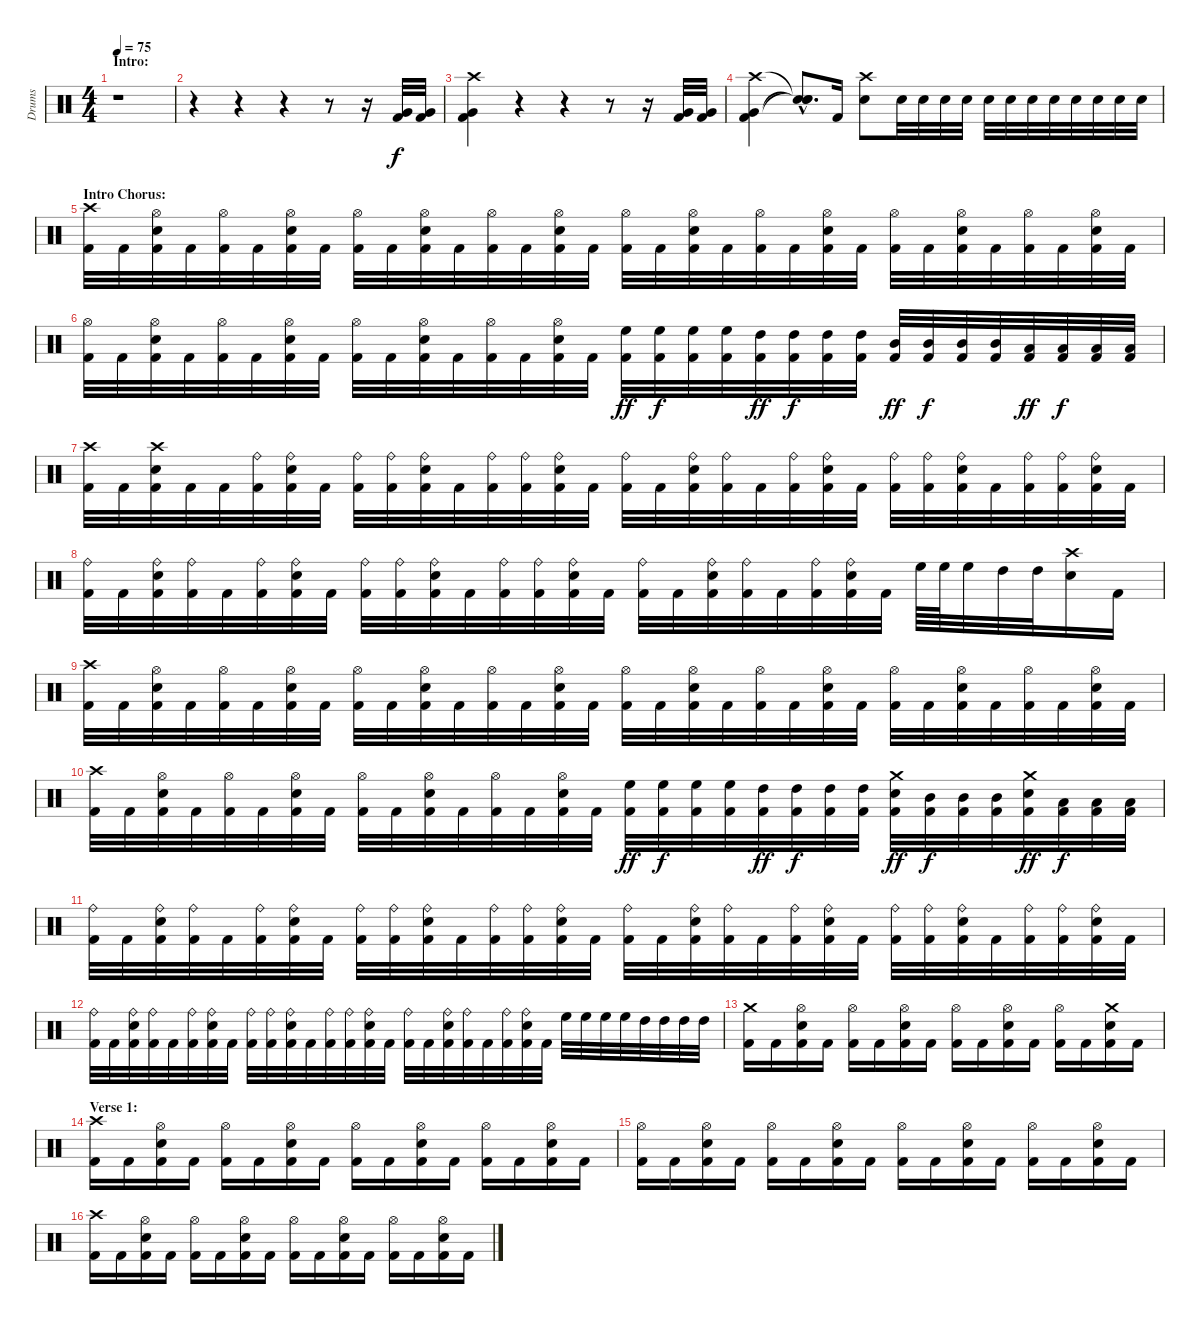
\track ("Drums" "Drums") {instrument percussion}
\staff {score}
\articulation defaults
\ts (4 4)
\section ("" "Intro:")
\tempo 75
\clef neutral
\ks c
r.1{dy f} |
r.4 r.4 r.4 r.8 r.16 ("Very Low Tom (hit)" "Kick (hit) 2").32 ("Very Low Tom (hit)" "Kick (hit) 2").32 |
("Crash high (hit)" "Very Low Tom (hit)" "Kick (hit) 2").4 r.4 r.4 r.8 r.16 ("Very Low Tom (hit)" "Kick (hit) 2").32 ("Very Low Tom (hit)" "Kick (hit) 2").32 |
("Crash high (hit)" "Very Low Tom (hit)" "Kick (hit) 2").4 ("Snare (hit)"{hac t} "Snare (hit)"{hac t} "Snare (hit)"{hac t}).8{d} "Kick (hit) 2".16 ("Crash high (hit)" "Snare (hit) 2").8 "Snare (hit) 2".32 "Snare (hit) 2".32 "Snare (hit) 2".32 "Snare (hit) 2".32 "Snare (hit) 2".32 "Snare (hit) 2".32 "Snare (hit) 2".32 "Snare (hit) 2".32 "Snare (hit) 2".32 "Snare (hit) 2".32 "Snare (hit) 2".32 "Snare (hit) 2".32 |
\section ("" "Intro Chorus:")
("Crash high (hit)" "Kick (hit) 2").32 "Kick (hit) 2".32 ("Hi-Hat (open)" "Snare (hit) 2" "Kick (hit) 2").32 "Kick (hit) 2".32 ("Hi-Hat (open)" "Kick (hit) 2").32 "Kick (hit) 2".32 ("Hi-Hat (open)" "Snare (hit) 2" "Kick (hit) 2").32 "Kick (hit) 2".32 ("Hi-Hat (open)" "Kick (hit) 2").32 "Kick (hit) 2".32 ("Hi-Hat (open)" "Snare (hit) 2" "Kick (hit) 2").32 "Kick (hit) 2".32 ("Hi-Hat (open)" "Kick (hit) 2").32 "Kick (hit) 2".32 ("Hi-Hat (open)" "Snare (hit) 2" "Kick (hit) 2").32 "Kick (hit) 2".32 ("Hi-Hat (open)" "Kick (hit) 2").32 "Kick (hit) 2".32 ("Hi-Hat (open)" "Snare (hit) 2" "Kick (hit) 2").32 "Kick (hit) 2".32 ("Hi-Hat (open)" "Kick (hit) 2").32 "Kick (hit) 2".32 ("Hi-Hat (open)" "Snare (hit) 2" "Kick (hit) 2").32 "Kick (hit) 2".32 ("Hi-Hat (open)" "Kick (hit) 2").32 "Kick (hit) 2".32 ("Hi-Hat (open)" "Snare (hit) 2" "Kick (hit) 2").32 "Kick (hit) 2".32 ("Hi-Hat (open)" "Kick (hit) 2").32 "Kick (hit) 2".32 ("Hi-Hat (open)" "Snare (hit) 2" "Kick (hit) 2").32 "Kick (hit) 2".32 |
("Hi-Hat (open)" "Kick (hit) 2").32 "Kick (hit) 2".32 ("Hi-Hat (open)" "Snare (hit) 2" "Kick (hit) 2").32 "Kick (hit) 2".32 ("Hi-Hat (open)" "Kick (hit) 2").32 "Kick (hit) 2".32 ("Hi-Hat (open)" "Snare (hit) 2" "Kick (hit) 2").32 "Kick (hit) 2".32 ("Hi-Hat (open)" "Kick (hit) 2").32 "Kick (hit) 2".32 ("Hi-Hat (open)" "Snare (hit) 2" "Kick (hit) 2").32 "Kick (hit) 2".32 ("Hi-Hat (open)" "Kick (hit) 2").32 "Kick (hit) 2".32 ("Hi-Hat (open)" "Snare (hit) 2" "Kick (hit) 2").32 "Kick (hit) 2".32 ("High Floor Tom (hit)" "Kick (hit) 2").32{dy ff} ("High Floor Tom (hit)" "Kick (hit) 2").32{dy f} ("High Floor Tom (hit)" "Kick (hit) 2").32 ("High Floor Tom (hit)" "Kick (hit) 2").32 ("High Tom (hit)" "Kick (hit) 2").32{dy ff} ("High Tom (hit)" "Kick (hit) 2").32{dy f} ("High Tom (hit)" "Kick (hit) 2").32 ("High Tom (hit)" "Kick (hit) 2").32 ("Mid Tom (hit)" "Kick (hit) 2").32{dy ff} ("Mid Tom (hit)" "Kick (hit) 2").32{dy f} ("Mid Tom (hit)" "Kick (hit) 2").32 ("Mid Tom (hit)" "Kick (hit) 2").32 ("Low Tom (hit)" "Kick (hit) 2").32{dy ff} ("Low Tom (hit)" "Kick (hit) 2").32{dy f} ("Low Tom (hit)" "Kick (hit) 2").32 ("Low Tom (hit)" "Kick (hit) 2").32 |
("Crash high (hit)" "Kick (hit) 2").32 "Kick (hit) 2".32 ("Crash high (hit)" "Snare (hit) 2" "Kick (hit) 2").32 "Kick (hit) 2".32 "Kick (hit) 2".32 ("Ride (bell)" "Kick (hit) 2").32 ("Ride (bell)" "Snare (hit) 2" "Kick (hit) 2").32 "Kick (hit) 2".32 ("Ride (bell)" "Kick (hit) 2").32 ("Ride (bell)" "Kick (hit) 2").32 ("Ride (bell)" "Snare (hit) 2" "Kick (hit) 2").32 "Kick (hit) 2".32 ("Ride (bell)" "Kick (hit) 2").32 ("Ride (bell)" "Kick (hit) 2").32 ("Ride (bell)" "Snare (hit) 2" "Kick (hit) 2").32 "Kick (hit) 2".32 ("Ride (bell)" "Kick (hit) 2").32 "Kick (hit) 2".32 ("Ride (bell)" "Snare (hit) 2" "Kick (hit) 2").32 ("Ride (bell)" "Kick (hit) 2").32 "Kick (hit) 2".32 ("Ride (bell)" "Kick (hit) 2").32 ("Ride (bell)" "Snare (hit) 2" "Kick (hit) 2").32 "Kick (hit) 2".32 ("Ride (bell)" "Kick (hit) 2").32 ("Ride (bell)" "Kick (hit) 2").32 ("Ride (bell)" "Snare (hit) 2" "Kick (hit) 2").32 "Kick (hit) 2".32 ("Ride (bell)" "Kick (hit) 2").32 ("Ride (bell)" "Kick (hit) 2").32 ("Ride (bell)" "Snare (hit) 2" "Kick (hit) 2").32 "Kick (hit) 2".32 |
("Ride (bell)" "Kick (hit) 2").32 "Kick (hit) 2".32 ("Ride (bell)" "Snare (hit) 2" "Kick (hit) 2").32 ("Ride (bell)" "Kick (hit) 2").32 "Kick (hit) 2".32 ("Ride (bell)" "Kick (hit) 2").32 ("Ride (bell)" "Snare (hit) 2" "Kick (hit) 2").32 "Kick (hit) 2".32 ("Ride (bell)" "Kick (hit) 2").32 ("Ride (bell)" "Kick (hit) 2").32 ("Ride (bell)" "Snare (hit) 2" "Kick (hit) 2").32 "Kick (hit) 2".32 ("Ride (bell)" "Kick (hit) 2").32 ("Ride (bell)" "Kick (hit) 2").32 ("Ride (bell)" "Snare (hit) 2" "Kick (hit) 2").32 "Kick (hit) 2".32 ("Ride (bell)" "Kick (hit) 2").32 "Kick (hit) 2".32 ("Ride (bell)" "Snare (hit) 2" "Kick (hit) 2").32 ("Ride (bell)" "Kick (hit) 2").32 "Kick (hit) 2".32 ("Ride (bell)" "Kick (hit) 2").32 ("Ride (bell)" "Snare (hit) 2" "Kick (hit) 2").32 "Kick (hit) 2".32 "High Floor Tom (hit)".64 "High Floor Tom (hit)".64 "High Floor Tom (hit)".32 "High Tom (hit)".32 "High Tom (hit)".32 ("Crash high (hit)" "Snare (hit) 2").16 "Kick (hit) 2".16 |
("Crash high (hit)" "Kick (hit) 2").32 "Kick (hit) 2".32 ("Hi-Hat (open)" "Snare (hit) 2" "Kick (hit) 2").32 "Kick (hit) 2".32 ("Hi-Hat (open)" "Kick (hit) 2").32 "Kick (hit) 2".32 ("Hi-Hat (open)" "Snare (hit) 2" "Kick (hit) 2").32 "Kick (hit) 2".32 ("Hi-Hat (open)" "Kick (hit) 2").32 "Kick (hit) 2".32 ("Hi-Hat (open)" "Snare (hit) 2" "Kick (hit) 2").32 "Kick (hit) 2".32 ("Hi-Hat (open)" "Kick (hit) 2").32 "Kick (hit) 2".32 ("Hi-Hat (open)" "Snare (hit) 2" "Kick (hit) 2").32 "Kick (hit) 2".32 ("Hi-Hat (open)" "Kick (hit) 2").32 "Kick (hit) 2".32 ("Hi-Hat (open)" "Snare (hit) 2" "Kick (hit) 2").32 "Kick (hit) 2".32 ("Hi-Hat (open)" "Kick (hit) 2").32 "Kick (hit) 2".32 ("Hi-Hat (open)" "Snare (hit) 2" "Kick (hit) 2").32 "Kick (hit) 2".32 ("Hi-Hat (open)" "Kick (hit) 2").32 "Kick (hit) 2".32 ("Hi-Hat (open)" "Snare (hit) 2" "Kick (hit) 2").32 "Kick (hit) 2".32 ("Hi-Hat (open)" "Kick (hit) 2").32 "Kick (hit) 2".32 ("Hi-Hat (open)" "Snare (hit) 2" "Kick (hit) 2").32 "Kick (hit) 2".32 |
("Crash high (hit)" "Kick (hit) 2").32 "Kick (hit) 2".32 ("Hi-Hat (open)" "Snare (hit) 2" "Kick (hit) 2").32 "Kick (hit) 2".32 ("Hi-Hat (open)" "Kick (hit) 2").32 "Kick (hit) 2".32 ("Hi-Hat (open)" "Snare (hit) 2" "Kick (hit) 2").32 "Kick (hit) 2".32 ("Hi-Hat (open)" "Kick (hit) 2").32 "Kick (hit) 2".32 ("Hi-Hat (open)" "Snare (hit) 2" "Kick (hit) 2").32 "Kick (hit) 2".32 ("Hi-Hat (open)" "Kick (hit) 2").32 "Kick (hit) 2".32 ("Hi-Hat (open)" "Snare (hit) 2" "Kick (hit) 2").32 "Kick (hit) 2".32 ("High Floor Tom (hit)" "Kick (hit) 2").32{dy ff} ("High Floor Tom (hit)" "Kick (hit) 2").32{dy f} ("High Floor Tom (hit)" "Kick (hit) 2").32 ("High Floor Tom (hit)" "Kick (hit) 2").32 ("High Tom (hit)" "Kick (hit) 2").32{dy ff} ("High Tom (hit)" "Kick (hit) 2").32{dy f} ("High Tom (hit)" "Kick (hit) 2").32 ("High Tom (hit)" "Kick (hit) 2").32 ("Crash medium (hit)" "Snare (hit) 2" "Kick (hit) 2").32{dy ff} ("Mid Tom (hit)" "Kick (hit) 2").32{dy f} ("Mid Tom (hit)" "Kick (hit) 2").32 ("Mid Tom (hit)" "Kick (hit) 2").32 ("Crash medium (hit)" "Snare (hit) 2" "Kick (hit) 2").32{dy ff} ("Low Tom (hit)" "Kick (hit) 2").32{dy f} ("Low Tom (hit)" "Kick (hit) 2").32 ("Low Tom (hit)" "Kick (hit) 2").32 |
("Ride (bell)" "Kick (hit) 2").32 "Kick (hit) 2".32 ("Ride (bell)" "Snare (hit) 2" "Kick (hit) 2").32 ("Ride (bell)" "Kick (hit) 2").32 "Kick (hit) 2".32 ("Ride (bell)" "Kick (hit) 2").32 ("Ride (bell)" "Snare (hit) 2" "Kick (hit) 2").32 "Kick (hit) 2".32 ("Ride (bell)" "Kick (hit) 2").32 ("Ride (bell)" "Kick (hit) 2").32 ("Ride (bell)" "Snare (hit) 2" "Kick (hit) 2").32 "Kick (hit) 2".32 ("Ride (bell)" "Kick (hit) 2").32 ("Ride (bell)" "Kick (hit) 2").32 ("Ride (bell)" "Snare (hit) 2" "Kick (hit) 2").32 "Kick (hit) 2".32 ("Ride (bell)" "Kick (hit) 2").32 "Kick (hit) 2".32 ("Ride (bell)" "Snare (hit) 2" "Kick (hit) 2").32 ("Ride (bell)" "Kick (hit) 2").32 "Kick (hit) 2".32 ("Ride (bell)" "Kick (hit) 2").32 ("Ride (bell)" "Snare (hit) 2" "Kick (hit) 2").32 "Kick (hit) 2".32 ("Ride (bell)" "Kick (hit) 2").32 ("Ride (bell)" "Kick (hit) 2").32 ("Ride (bell)" "Snare (hit) 2" "Kick (hit) 2").32 "Kick (hit) 2".32 ("Ride (bell)" "Kick (hit) 2").32 ("Ride (bell)" "Kick (hit) 2").32 ("Ride (bell)" "Snare (hit) 2" "Kick (hit) 2").32 "Kick (hit) 2".32 |
("Ride (bell)" "Kick (hit) 2").32 "Kick (hit) 2".32 ("Ride (bell)" "Snare (hit) 2" "Kick (hit) 2").32 ("Ride (bell)" "Kick (hit) 2").32 "Kick (hit) 2".32 ("Ride (bell)" "Kick (hit) 2").32 ("Ride (bell)" "Snare (hit) 2" "Kick (hit) 2").32 "Kick (hit) 2".32 ("Ride (bell)" "Kick (hit) 2").32 ("Ride (bell)" "Kick (hit) 2").32 ("Ride (bell)" "Snare (hit) 2" "Kick (hit) 2").32 "Kick (hit) 2".32 ("Ride (bell)" "Kick (hit) 2").32 ("Ride (bell)" "Kick (hit) 2").32 ("Ride (bell)" "Snare (hit) 2" "Kick (hit) 2").32 "Kick (hit) 2".32 ("Ride (bell)" "Kick (hit) 2").32 "Kick (hit) 2".32 ("Ride (bell)" "Snare (hit) 2" "Kick (hit) 2").32 ("Ride (bell)" "Kick (hit) 2").32 "Kick (hit) 2".32 ("Ride (bell)" "Kick (hit) 2").32 ("Ride (bell)" "Snare (hit) 2" "Kick (hit) 2").32 "Kick (hit) 2".32 "High Floor Tom (hit)".32 "High Floor Tom (hit)".32 "High Floor Tom (hit)".32 "High Floor Tom (hit)".32 "High Tom (hit)".32 "High Tom (hit)".32 "High Tom (hit)".32 "High Tom (hit)".32 |
("Crash medium (hit)" "Kick (hit) 2").16 "Kick (hit) 2".16 ("Hi-Hat (open)" "Snare (hit) 2" "Kick (hit) 2").16 "Kick (hit) 2".16 ("Hi-Hat (open)" "Kick (hit) 2").16 "Kick (hit) 2".16 ("Hi-Hat (open)" "Snare (hit) 2" "Kick (hit) 2").16 "Kick (hit) 2".16 ("Hi-Hat (open)" "Kick (hit) 2").16 "Kick (hit) 2".16 ("Hi-Hat (open)" "Snare (hit) 2" "Kick (hit) 2").16 "Kick (hit) 2".16 ("Hi-Hat (open)" "Kick (hit) 2").16 "Kick (hit) 2".16 ("Crash medium (hit)" "Snare (hit) 2" "Kick (hit) 2").16 "Kick (hit) 2".16 |
\section ("" "Verse 1:")
("Crash high (hit)" "Kick (hit) 2").16 "Kick (hit) 2".16 ("Hi-Hat (open)" "Snare (hit) 2" "Kick (hit) 2").16 "Kick (hit) 2".16 ("Hi-Hat (open)" "Kick (hit) 2").16 "Kick (hit) 2".16 ("Hi-Hat (open)" "Snare (hit) 2" "Kick (hit) 2").16 "Kick (hit) 2".16 ("Hi-Hat (open)" "Kick (hit) 2").16 "Kick (hit) 2".16 ("Hi-Hat (open)" "Snare (hit) 2" "Kick (hit) 2").16 "Kick (hit) 2".16 ("Hi-Hat (open)" "Kick (hit) 2").16 "Kick (hit) 2".16 ("Hi-Hat (open)" "Snare (hit) 2" "Kick (hit) 2").16 "Kick (hit) 2".16 |
("Hi-Hat (open)" "Kick (hit) 2").16 "Kick (hit) 2".16 ("Hi-Hat (open)" "Snare (hit) 2" "Kick (hit) 2").16 "Kick (hit) 2".16 ("Hi-Hat (open)" "Kick (hit) 2").16 "Kick (hit) 2".16 ("Hi-Hat (open)" "Snare (hit) 2" "Kick (hit) 2").16 "Kick (hit) 2".16 ("Hi-Hat (open)" "Kick (hit) 2").16 "Kick (hit) 2".16 ("Hi-Hat (open)" "Snare (hit) 2" "Kick (hit) 2").16 "Kick (hit) 2".16 ("Hi-Hat (open)" "Kick (hit) 2").16 "Kick (hit) 2".16 ("Hi-Hat (open)" "Snare (hit) 2" "Kick (hit) 2").16 "Kick (hit) 2".16 |
("Crash high (hit)" "Kick (hit) 2").16 "Kick (hit) 2".16 ("Hi-Hat (open)" "Snare (hit) 2" "Kick (hit) 2").16 "Kick (hit) 2".16 ("Hi-Hat (open)" "Kick (hit) 2").16 "Kick (hit) 2".16 ("Hi-Hat (open)" "Snare (hit) 2" "Kick (hit) 2").16 "Kick (hit) 2".16 ("Hi-Hat (open)" "Kick (hit) 2").16 "Kick (hit) 2".16 ("Hi-Hat (open)" "Snare (hit) 2" "Kick (hit) 2").16 "Kick (hit) 2".16 ("Hi-Hat (open)" "Kick (hit) 2").16 "Kick (hit) 2".16 ("Hi-Hat (open)" "Snare (hit) 2" "Kick (hit) 2").16 "Kick (hit) 2".16
